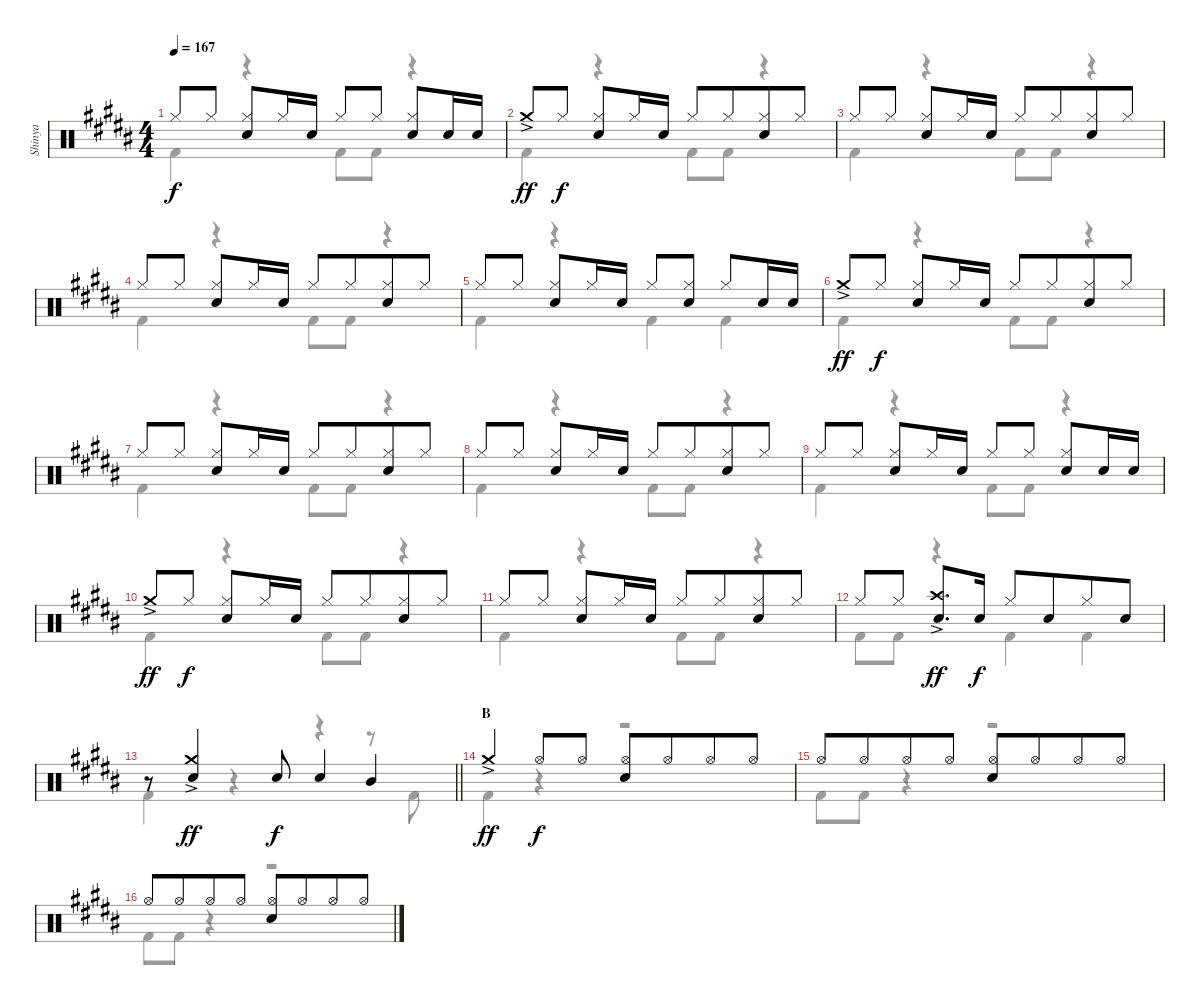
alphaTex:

\track ("Shinya" "Shinya") {instrument percussion}
\staff {score}
\articulation defaults
\voice
\ts (4 4)
\tempo 167
\clef neutral
\ks g#minor "Hi-Hat (closed)".8{dy f} "Hi-Hat (closed)".8
("Hi-Hat (closed)" "Snare (hit) 2").8 "Hi-Hat (closed)".16 "Snare (hit) 2".16 "Hi-Hat (closed)".8 "Hi-Hat (closed)".8 ("Hi-Hat (closed)" "Snare (hit) 2").8 "Snare (hit) 2".16 "Snare (hit) 2".16 |
"Crash medium (hit)"{ac}.8{dy ff} "Hi-Hat (closed)".8{dy f} ("Hi-Hat (closed)" "Snare (hit) 2").8 "Hi-Hat (closed)".16 "Snare (hit) 2".16 "Hi-Hat (closed)".8 "Hi-Hat (closed)".8{beam merge} ("Hi-Hat (closed)" "Snare (hit) 2").8 "Hi-Hat (closed)".8 |
"Hi-Hat (closed)".8 "Hi-Hat (closed)".8 ("Hi-Hat (closed)" "Snare (hit) 2").8 "Hi-Hat (closed)".16 "Snare (hit) 2".16 "Hi-Hat (closed)".8 "Hi-Hat (closed)".8{beam merge} ("Hi-Hat (closed)" "Snare (hit) 2").8 "Hi-Hat (closed)".8 |
"Hi-Hat (closed)".8 "Hi-Hat (closed)".8 ("Hi-Hat (closed)" "Snare (hit) 2").8 "Hi-Hat (closed)".16 "Snare (hit) 2".16 "Hi-Hat (closed)".8 "Hi-Hat (closed)".8{beam merge} ("Hi-Hat (closed)" "Snare (hit) 2").8 "Hi-Hat (closed)".8 |
"Hi-Hat (closed)".8 "Hi-Hat (closed)".8 ("Hi-Hat (closed)" "Snare (hit) 2").8 "Hi-Hat (closed)".16 "Snare (hit) 2".16 "Hi-Hat (closed)".8 ("Hi-Hat (closed)" "Snare (hit) 2").8 "Hi-Hat (closed)".8 "Snare (hit) 2".16 "Snare (hit) 2".16 |
"Crash medium (hit)"{ac}.8{dy ff} "Hi-Hat (closed)".8{dy f} ("Hi-Hat (closed)" "Snare (hit) 2").8 "Hi-Hat (closed)".16 "Snare (hit) 2".16 "Hi-Hat (closed)".8 "Hi-Hat (closed)".8{beam merge} ("Hi-Hat (closed)" "Snare (hit) 2").8 "Hi-Hat (closed)".8 |
"Hi-Hat (closed)".8 "Hi-Hat (closed)".8 ("Hi-Hat (closed)" "Snare (hit) 2").8 "Hi-Hat (closed)".16 "Snare (hit) 2".16 "Hi-Hat (closed)".8 "Hi-Hat (closed)".8{beam merge} ("Hi-Hat (closed)" "Snare (hit) 2").8 "Hi-Hat (closed)".8 |
"Hi-Hat (closed)".8 "Hi-Hat (closed)".8 ("Hi-Hat (closed)" "Snare (hit) 2").8 "Hi-Hat (closed)".16 "Snare (hit) 2".16 "Hi-Hat (closed)".8 "Hi-Hat (closed)".8{beam merge} ("Hi-Hat (closed)" "Snare (hit) 2").8 "Hi-Hat (closed)".8 |
"Hi-Hat (closed)".8 "Hi-Hat (closed)".8 ("Hi-Hat (closed)" "Snare (hit) 2").8 "Hi-Hat (closed)".16 "Snare (hit) 2".16 "Hi-Hat (closed)".8 "Hi-Hat (closed)".8 ("Hi-Hat (closed)" "Snare (hit) 2").8 "Snare (hit) 2".16 "Snare (hit) 2".16 |
"Crash medium (hit)"{ac}.8{dy ff} "Hi-Hat (closed)".8{dy f} ("Hi-Hat (closed)" "Snare (hit) 2").8 "Hi-Hat (closed)".16 "Snare (hit) 2".16 "Hi-Hat (closed)".8 "Hi-Hat (closed)".8{beam merge} ("Hi-Hat (closed)" "Snare (hit) 2").8 "Hi-Hat (closed)".8 |
"Hi-Hat (closed)".8 "Hi-Hat (closed)".8 ("Hi-Hat (closed)" "Snare (hit) 2").8 "Hi-Hat (closed)".16 "Snare (hit) 2".16 "Hi-Hat (closed)".8 "Hi-Hat (closed)".8{beam merge} ("Hi-Hat (closed)" "Snare (hit) 2").8 "Hi-Hat (closed)".8 |
"Hi-Hat (closed)".8 "Hi-Hat (closed)".8 ("Crash high (hit)"{ac} "Snare (hit) 2").8{d dy ff} "Snare (hit) 2".16{dy f} "Hi-Hat (closed)".8 "Snare (hit) 2".8{beam merge} "Hi-Hat (closed)".8 "Snare (hit) 2".8 |
\barLineRight lightlight
r.8 ("Crash medium (hit)"{ac} "Snare (hit) 2").4{dy ff} "Snare (hit) 2".8{dy f} "Snare (hit) 2".4 "Mid Tom (hit)".4 |
\section ("" "B")
"Crash medium (hit)"{ac}.4{dy ff} "Hi-Hat (open)".8{dy f} "Hi-Hat (open)".8 ("Hi-Hat (open)" "Snare (hit) 2").8 "Hi-Hat (open)".8{beam merge} "Hi-Hat (open)".8 "Hi-Hat (open)".8 |
"Hi-Hat (open)".8 "Hi-Hat (open)".8{beam merge} "Hi-Hat (open)".8 "Hi-Hat (open)".8 ("Hi-Hat (open)" "Snare (hit) 2").8 "Hi-Hat (open)".8{beam merge} "Hi-Hat (open)".8 "Hi-Hat (open)".8 |
"Hi-Hat (open)".8 "Hi-Hat (open)".8{beam merge} "Hi-Hat (open)".8 "Hi-Hat (open)".8 ("Hi-Hat (open)" "Snare (hit) 2").8 "Hi-Hat (open)".8{beam merge} "Hi-Hat (open)".8 "Hi-Hat (open)".8
\voice
\clef neutral
\ottava regular
\simile none
\ks g#minor "Kick (hit) 2".4{dy f}
r.4 "Kick (hit) 2".8 "Kick (hit) 2".8 r.4 |
"Kick (hit) 2".4 r.4 "Kick (hit) 2".8 "Kick (hit) 2".8 r.4 |
"Kick (hit) 2".4 r.4 "Kick (hit) 2".8 "Kick (hit) 2".8 r.4 |
"Kick (hit) 2".4 r.4 "Kick (hit) 2".8 "Kick (hit) 2".8 r.4 |
"Kick (hit) 2".4 r.4 "Kick (hit) 2".4 "Kick (hit) 2".4 |
"Kick (hit) 2".4 r.4 "Kick (hit) 2".8 "Kick (hit) 2".8 r.4 |
"Kick (hit) 2".4 r.4 "Kick (hit) 2".8 "Kick (hit) 2".8 r.4 |
"Kick (hit) 2".4 r.4 "Kick (hit) 2".8 "Kick (hit) 2".8 r.4 |
"Kick (hit) 2".4 r.4 "Kick (hit) 2".8 "Kick (hit) 2".8 r.4 |
"Kick (hit) 2".4 r.4 "Kick (hit) 2".8 "Kick (hit) 2".8 r.4 |
"Kick (hit) 2".4 r.4 "Kick (hit) 2".8 "Kick (hit) 2".8 r.4 |
"Kick (hit) 2".8 "Kick (hit) 2".8 r.4 "Kick (hit) 2".4 "Kick (hit) 2".4 |
\barLineRight lightlight "Kick (hit) 2".4
r.4 r.4 r.8 "Kick (hit) 2".8 |
"Kick (hit) 2".4 r.4 r.2 |
"Kick (hit) 2".8 "Kick (hit) 2".8 r.4 r.2 |
"Kick (hit) 2".8 "Kick (hit) 2".8 r.4 r.2
